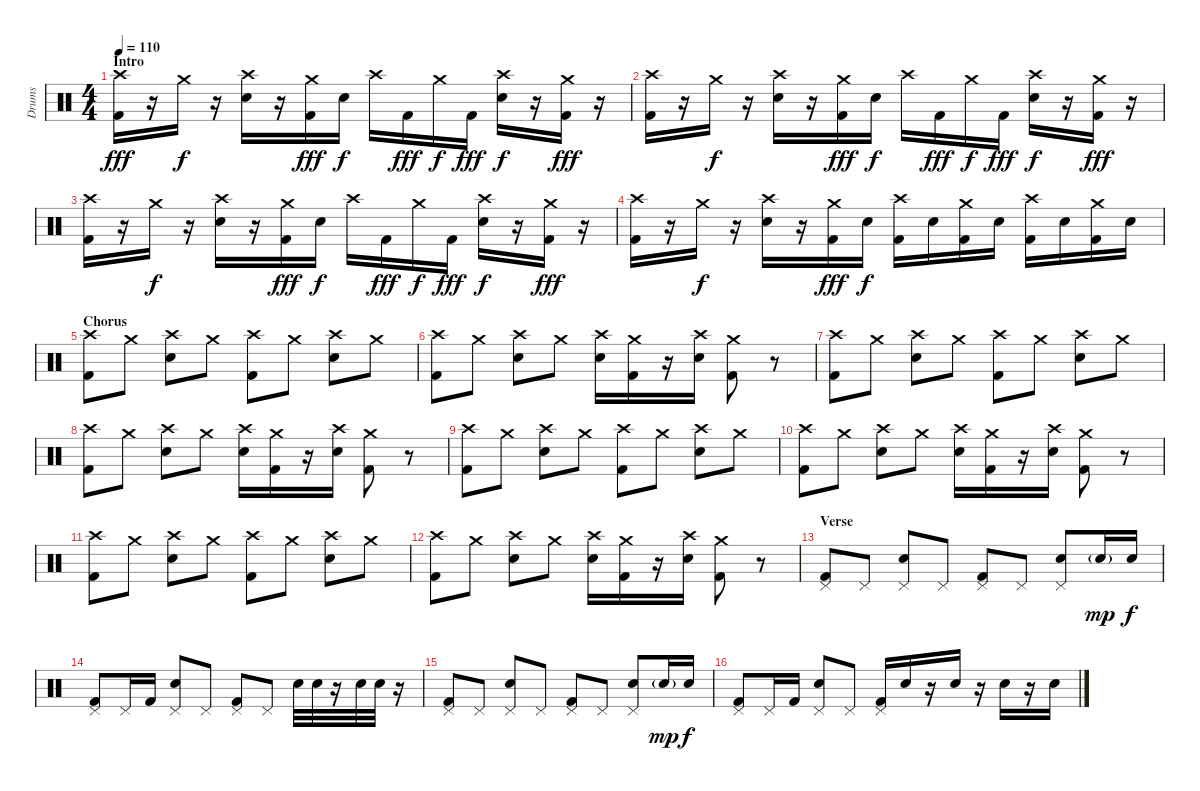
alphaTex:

\track ("Drums" "Drums") {instrument percussion}
\staff {score}
\articulation defaults
\ts (4 4)
\section ("" "Intro")
\tempo 110
\clef neutral
\ks c
("Crash high (hit)" "Kick (hit) 2").16{dy fff} r.16 "Crash medium (hit)".16{dy f} r.16 ("Crash high (hit)" "Electric Snare (hit)").16 r.16 ("Crash medium (hit)" "Kick (hit) 2").16{dy fff} "Electric Snare (hit)".16{dy f} "Crash high (hit)".16 "Kick (hit) 2".16{dy fff} "Crash medium (hit)".16{dy f} "Kick (hit) 2".16{dy fff} ("Crash high (hit)" "Electric Snare (hit)").16{dy f} r.16 ("Crash medium (hit)" "Kick (hit) 2").16{dy fff} r.16 |
("Crash high (hit)" "Kick (hit) 2").16 r.16 "Crash medium (hit)".16{dy f} r.16 ("Crash high (hit)" "Electric Snare (hit)").16 r.16 ("Crash medium (hit)" "Kick (hit) 2").16{dy fff} "Electric Snare (hit)".16{dy f} "Crash high (hit)".16 "Kick (hit) 2".16{dy fff} "Crash medium (hit)".16{dy f} "Kick (hit) 2".16{dy fff} ("Crash high (hit)" "Electric Snare (hit)").16{dy f} r.16 ("Crash medium (hit)" "Kick (hit) 2").16{dy fff} r.16 |
("Crash high (hit)" "Kick (hit) 2").16 r.16 "Crash medium (hit)".16{dy f} r.16 ("Crash high (hit)" "Electric Snare (hit)").16 r.16 ("Crash medium (hit)" "Kick (hit) 2").16{dy fff} "Electric Snare (hit)".16{dy f} "Crash high (hit)".16 "Kick (hit) 2".16{dy fff} "Crash medium (hit)".16{dy f} "Kick (hit) 2".16{dy fff} ("Crash high (hit)" "Electric Snare (hit)").16{dy f} r.16 ("Crash medium (hit)" "Kick (hit) 2").16{dy fff} r.16 |
("Crash high (hit)" "Kick (hit) 2").16 r.16 "Crash medium (hit)".16{dy f} r.16 ("Crash high (hit)" "Electric Snare (hit)").16 r.16 ("Crash medium (hit)" "Kick (hit) 2").16{dy fff} "Electric Snare (hit)".16{dy f} ("Crash high (hit)" "Kick (hit) 2").16 "Electric Snare (hit)".16 ("Crash medium (hit)" "Kick (hit) 2").16 "Electric Snare (hit)".16 ("Crash high (hit)" "Kick (hit) 2").16 "Electric Snare (hit)".16 ("Crash medium (hit)" "Kick (hit) 2").16 "Electric Snare (hit)".16 |
\section ("" "Chorus")
("Crash high (hit)" "Kick (hit) 2").8 "Crash medium (hit)".8 ("Crash high (hit)" "Electric Snare (hit)").8 "Crash medium (hit)".8 ("Crash high (hit)" "Kick (hit) 2").8 "Crash medium (hit)".8 ("Crash high (hit)" "Electric Snare (hit)").8 "Crash medium (hit)".8 |
("Crash high (hit)" "Kick (hit) 2").8 "Crash medium (hit)".8 ("Crash high (hit)" "Electric Snare (hit)").8 "Crash medium (hit)".8 ("Crash high (hit)" "Electric Snare (hit)").16 ("Crash medium (hit)" "Kick (hit) 2").16 r.16 ("Crash high (hit)" "Electric Snare (hit)").16 ("Crash medium (hit)" "Kick (hit) 2").8 r.8 |
("Crash high (hit)" "Kick (hit) 2").8 "Crash medium (hit)".8 ("Crash high (hit)" "Electric Snare (hit)").8 "Crash medium (hit)".8 ("Crash high (hit)" "Kick (hit) 2").8 "Crash medium (hit)".8 ("Crash high (hit)" "Electric Snare (hit)").8 "Crash medium (hit)".8 |
("Crash high (hit)" "Kick (hit) 2").8 "Crash medium (hit)".8 ("Crash high (hit)" "Electric Snare (hit)").8 "Crash medium (hit)".8 ("Crash high (hit)" "Electric Snare (hit)").16 ("Crash medium (hit)" "Kick (hit) 2").16 r.16 ("Crash high (hit)" "Electric Snare (hit)").16 ("Crash medium (hit)" "Kick (hit) 2").8 r.8 |
("Crash high (hit)" "Kick (hit) 2").8 "Crash medium (hit)".8 ("Crash high (hit)" "Electric Snare (hit)").8 "Crash medium (hit)".8 ("Crash high (hit)" "Kick (hit) 2").8 "Crash medium (hit)".8 ("Crash high (hit)" "Electric Snare (hit)").8 "Crash medium (hit)".8 |
("Crash high (hit)" "Kick (hit) 2").8 "Crash medium (hit)".8 ("Crash high (hit)" "Electric Snare (hit)").8 "Crash medium (hit)".8 ("Crash high (hit)" "Electric Snare (hit)").16 ("Crash medium (hit)" "Kick (hit) 2").16 r.16 ("Crash high (hit)" "Electric Snare (hit)").16 ("Crash medium (hit)" "Kick (hit) 2").8 r.8 |
("Crash high (hit)" "Kick (hit) 2").8 "Crash medium (hit)".8 ("Crash high (hit)" "Electric Snare (hit)").8 "Crash medium (hit)".8 ("Crash high (hit)" "Kick (hit) 2").8 "Crash medium (hit)".8 ("Crash high (hit)" "Electric Snare (hit)").8 "Crash medium (hit)".8 |
("Crash high (hit)" "Kick (hit) 2").8 "Crash medium (hit)".8 ("Crash high (hit)" "Electric Snare (hit)").8 "Crash medium (hit)".8 ("Crash high (hit)" "Electric Snare (hit)").16 ("Crash medium (hit)" "Kick (hit) 2").16 r.16 ("Crash high (hit)" "Electric Snare (hit)").16 ("Crash medium (hit)" "Kick (hit) 2").8 r.8 |
\section ("" "Verse")
("Pedal Hi-Hat (hit)" "Kick (hit) 2").8 "Pedal Hi-Hat (hit)".8 ("Pedal Hi-Hat (hit)" "Electric Snare (hit)").8 "Pedal Hi-Hat (hit)".8 ("Pedal Hi-Hat (hit)" "Kick (hit) 2").8 "Pedal Hi-Hat (hit)".8 ("Pedal Hi-Hat (hit)" "Electric Snare (hit)").8 "Electric Snare (hit)"{g}.16{dy mp} "Electric Snare (hit)".16{dy f} |
("Pedal Hi-Hat (hit)" "Kick (hit) 2").8 "Pedal Hi-Hat (hit)".16 "Kick (hit) 2".16 ("Pedal Hi-Hat (hit)" "Electric Snare (hit)").8 "Pedal Hi-Hat (hit)".8 ("Pedal Hi-Hat (hit)" "Kick (hit) 2").8 "Pedal Hi-Hat (hit)".8 "Electric Snare (hit)".32 "Electric Snare (hit)".32 r.16 "Electric Snare (hit)".32 "Electric Snare (hit)".32 r.16 |
("Pedal Hi-Hat (hit)" "Kick (hit) 2").8 "Pedal Hi-Hat (hit)".8 ("Pedal Hi-Hat (hit)" "Electric Snare (hit)").8 "Pedal Hi-Hat (hit)".8 ("Pedal Hi-Hat (hit)" "Kick (hit) 2").8 "Pedal Hi-Hat (hit)".8 ("Pedal Hi-Hat (hit)" "Electric Snare (hit)").8 "Electric Snare (hit)"{g}.16{dy mp} "Electric Snare (hit)".16{dy f} |
("Pedal Hi-Hat (hit)" "Kick (hit) 2").8 "Pedal Hi-Hat (hit)".16 "Kick (hit) 2".16 ("Pedal Hi-Hat (hit)" "Electric Snare (hit)").8 "Pedal Hi-Hat (hit)".8 ("Pedal Hi-Hat (hit)" "Kick (hit) 2").16 "Electric Snare (hit)".16 r.16 "Electric Snare (hit)".16 r.16 "Electric Snare (hit)".16 r.16 "Electric Snare (hit)".16
